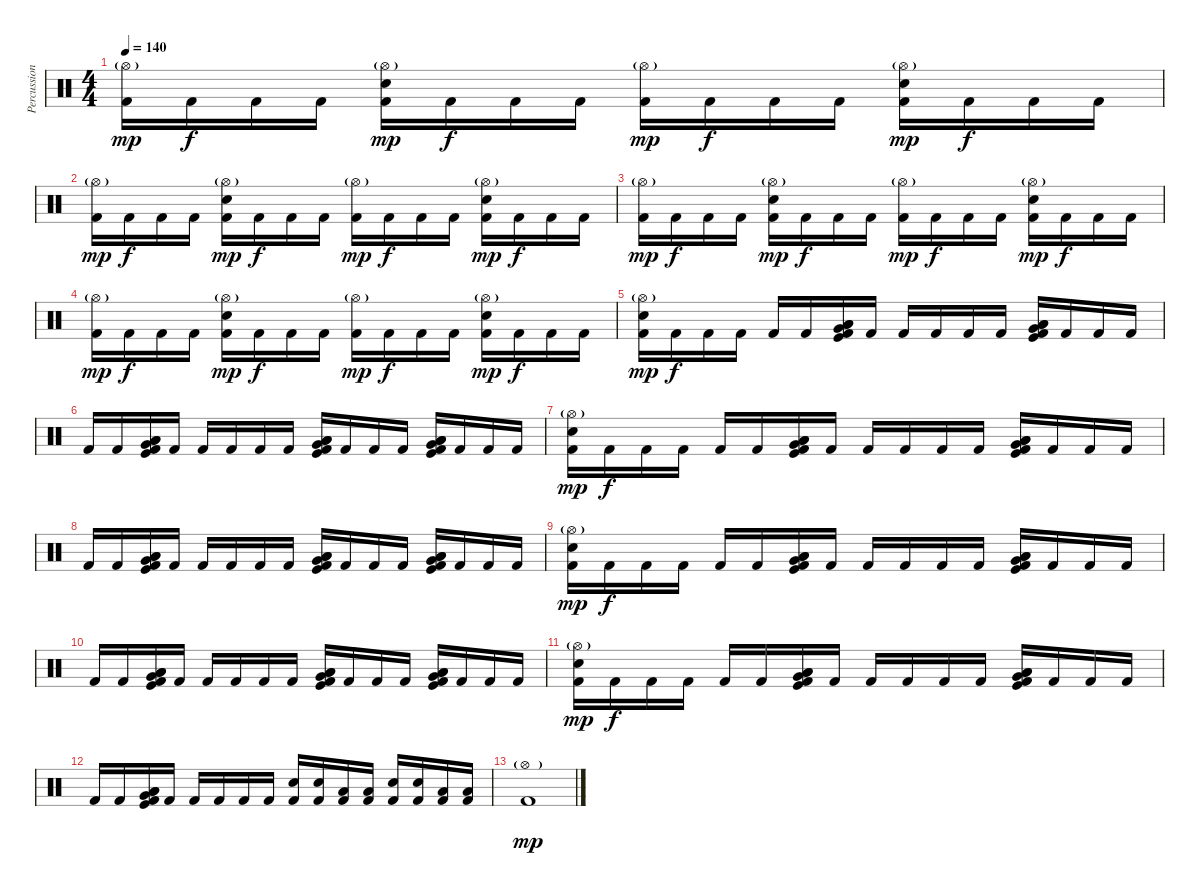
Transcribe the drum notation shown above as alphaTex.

\track ("Percussions" "Percussion") {instrument percussion}
\staff {score}
\articulation defaults
\ts (4 4)
\tempo 140
\clef neutral
\ks c
("Hi-Hat (open)"{g} "Kick (hit) 2").16{dy mp} "Kick (hit) 2".16{dy f} "Kick (hit) 2".16 "Kick (hit) 2".16 ("Hi-Hat (open)"{g} "Electric Snare (hit)" "Kick (hit) 2").16{dy mp} "Kick (hit) 2".16{dy f} "Kick (hit) 2".16 "Kick (hit) 2".16 ("Hi-Hat (open)"{g} "Kick (hit) 2").16{dy mp} "Kick (hit) 2".16{dy f} "Kick (hit) 2".16 "Kick (hit) 2".16 ("Hi-Hat (open)"{g} "Electric Snare (hit)" "Kick (hit) 2").16{dy mp} "Kick (hit) 2".16{dy f} "Kick (hit) 2".16 "Kick (hit) 2".16 |
("Hi-Hat (open)"{g} "Kick (hit) 2").16{dy mp} "Kick (hit) 2".16{dy f} "Kick (hit) 2".16 "Kick (hit) 2".16 ("Hi-Hat (open)"{g} "Electric Snare (hit)" "Kick (hit) 2").16{dy mp} "Kick (hit) 2".16{dy f} "Kick (hit) 2".16 "Kick (hit) 2".16 ("Hi-Hat (open)"{g} "Kick (hit) 2").16{dy mp} "Kick (hit) 2".16{dy f} "Kick (hit) 2".16 "Kick (hit) 2".16 ("Hi-Hat (open)"{g} "Electric Snare (hit)" "Kick (hit) 2").16{dy mp} "Kick (hit) 2".16{dy f} "Kick (hit) 2".16 "Kick (hit) 2".16 |
("Hi-Hat (open)"{g} "Kick (hit) 2").16{dy mp} "Kick (hit) 2".16{dy f} "Kick (hit) 2".16 "Kick (hit) 2".16 ("Hi-Hat (open)"{g} "Electric Snare (hit)" "Kick (hit) 2").16{dy mp} "Kick (hit) 2".16{dy f} "Kick (hit) 2".16 "Kick (hit) 2".16 ("Hi-Hat (open)"{g} "Kick (hit) 2").16{dy mp} "Kick (hit) 2".16{dy f} "Kick (hit) 2".16 "Kick (hit) 2".16 ("Hi-Hat (open)"{g} "Electric Snare (hit)" "Kick (hit) 2").16{dy mp} "Kick (hit) 2".16{dy f} "Kick (hit) 2".16 "Kick (hit) 2".16 |
("Hi-Hat (open)"{g} "Kick (hit) 2").16{dy mp} "Kick (hit) 2".16{dy f} "Kick (hit) 2".16 "Kick (hit) 2".16 ("Hi-Hat (open)"{g} "Electric Snare (hit)" "Kick (hit) 2").16{dy mp} "Kick (hit) 2".16{dy f} "Kick (hit) 2".16 "Kick (hit) 2".16 ("Hi-Hat (open)"{g} "Kick (hit) 2").16{dy mp} "Kick (hit) 2".16{dy f} "Kick (hit) 2".16 "Kick (hit) 2".16 ("Hi-Hat (open)"{g} "Electric Snare (hit)" "Kick (hit) 2").16{dy mp} "Kick (hit) 2".16{dy f} "Kick (hit) 2".16 "Kick (hit) 2".16 |
("Hi-Hat (open)"{g} "Electric Snare (hit)" "Kick (hit) 2").16{dy mp} "Kick (hit) 2".16{dy f} "Kick (hit) 2".16 "Kick (hit) 2".16 "Kick (hit) 2".16 "Kick (hit) 2".16 ("Kick (hit)" "Low Tom (hit)" "Very Low Tom (hit)" "Low Floor Tom (hit)" "Kick (hit) 2").16 "Kick (hit) 2".16 "Kick (hit) 2".16 "Kick (hit) 2".16 "Kick (hit) 2".16 "Kick (hit) 2".16 ("Kick (hit)" "Low Tom (hit)" "Very Low Tom (hit)" "Low Floor Tom (hit)" "Kick (hit) 2").16 "Kick (hit) 2".16 "Kick (hit) 2".16 "Kick (hit) 2".16 |
"Kick (hit) 2".16 "Kick (hit) 2".16 ("Kick (hit)" "Low Tom (hit)" "Very Low Tom (hit)" "Low Floor Tom (hit)" "Kick (hit) 2").16 "Kick (hit) 2".16 "Kick (hit) 2".16 "Kick (hit) 2".16 "Kick (hit) 2".16 "Kick (hit) 2".16 ("Kick (hit)" "Low Tom (hit)" "Very Low Tom (hit)" "Low Floor Tom (hit)" "Kick (hit) 2").16 "Kick (hit) 2".16 "Kick (hit) 2".16 "Kick (hit) 2".16 ("Kick (hit)" "Low Tom (hit)" "Very Low Tom (hit)" "Low Floor Tom (hit)" "Kick (hit) 2").16 "Kick (hit) 2".16 "Kick (hit) 2".16 "Kick (hit) 2".16 |
("Hi-Hat (open)"{g} "Electric Snare (hit)" "Kick (hit) 2").16{dy mp} "Kick (hit) 2".16{dy f} "Kick (hit) 2".16 "Kick (hit) 2".16 "Kick (hit) 2".16 "Kick (hit) 2".16 ("Kick (hit)" "Low Tom (hit)" "Very Low Tom (hit)" "Low Floor Tom (hit)" "Kick (hit) 2").16 "Kick (hit) 2".16 "Kick (hit) 2".16 "Kick (hit) 2".16 "Kick (hit) 2".16 "Kick (hit) 2".16 ("Kick (hit)" "Low Tom (hit)" "Very Low Tom (hit)" "Low Floor Tom (hit)" "Kick (hit) 2").16 "Kick (hit) 2".16 "Kick (hit) 2".16 "Kick (hit) 2".16 |
"Kick (hit) 2".16 "Kick (hit) 2".16 ("Kick (hit)" "Low Tom (hit)" "Very Low Tom (hit)" "Low Floor Tom (hit)" "Kick (hit) 2").16 "Kick (hit) 2".16 "Kick (hit) 2".16 "Kick (hit) 2".16 "Kick (hit) 2".16 "Kick (hit) 2".16 ("Kick (hit)" "Low Tom (hit)" "Very Low Tom (hit)" "Low Floor Tom (hit)" "Kick (hit) 2").16 "Kick (hit) 2".16 "Kick (hit) 2".16 "Kick (hit) 2".16 ("Kick (hit)" "Low Tom (hit)" "Very Low Tom (hit)" "Low Floor Tom (hit)" "Kick (hit) 2").16 "Kick (hit) 2".16 "Kick (hit) 2".16 "Kick (hit) 2".16 |
("Hi-Hat (open)"{g} "Electric Snare (hit)" "Kick (hit) 2").16{dy mp} "Kick (hit) 2".16{dy f} "Kick (hit) 2".16 "Kick (hit) 2".16 "Kick (hit) 2".16 "Kick (hit) 2".16 ("Kick (hit)" "Low Tom (hit)" "Very Low Tom (hit)" "Low Floor Tom (hit)" "Kick (hit) 2").16 "Kick (hit) 2".16 "Kick (hit) 2".16 "Kick (hit) 2".16 "Kick (hit) 2".16 "Kick (hit) 2".16 ("Kick (hit)" "Low Tom (hit)" "Very Low Tom (hit)" "Low Floor Tom (hit)" "Kick (hit) 2").16 "Kick (hit) 2".16 "Kick (hit) 2".16 "Kick (hit) 2".16 |
"Kick (hit) 2".16 "Kick (hit) 2".16 ("Kick (hit)" "Low Tom (hit)" "Very Low Tom (hit)" "Low Floor Tom (hit)" "Kick (hit) 2").16 "Kick (hit) 2".16 "Kick (hit) 2".16 "Kick (hit) 2".16 "Kick (hit) 2".16 "Kick (hit) 2".16 ("Kick (hit)" "Low Tom (hit)" "Very Low Tom (hit)" "Low Floor Tom (hit)" "Kick (hit) 2").16 "Kick (hit) 2".16 "Kick (hit) 2".16 "Kick (hit) 2".16 ("Kick (hit)" "Low Tom (hit)" "Very Low Tom (hit)" "Low Floor Tom (hit)" "Kick (hit) 2").16 "Kick (hit) 2".16 "Kick (hit) 2".16 "Kick (hit) 2".16 |
("Hi-Hat (open)"{g} "Electric Snare (hit)" "Kick (hit) 2").16{dy mp} "Kick (hit) 2".16{dy f} "Kick (hit) 2".16 "Kick (hit) 2".16 "Kick (hit) 2".16 "Kick (hit) 2".16 ("Kick (hit)" "Low Tom (hit)" "Very Low Tom (hit)" "Low Floor Tom (hit)" "Kick (hit) 2").16 "Kick (hit) 2".16 "Kick (hit) 2".16 "Kick (hit) 2".16 "Kick (hit) 2".16 "Kick (hit) 2".16 ("Kick (hit)" "Low Tom (hit)" "Very Low Tom (hit)" "Low Floor Tom (hit)" "Kick (hit) 2").16 "Kick (hit) 2".16 "Kick (hit) 2".16 "Kick (hit) 2".16 |
"Kick (hit) 2".16 "Kick (hit) 2".16 ("Kick (hit)" "Low Tom (hit)" "Very Low Tom (hit)" "Low Floor Tom (hit)" "Kick (hit) 2").16 "Kick (hit) 2".16 "Kick (hit) 2".16 "Kick (hit) 2".16 "Kick (hit) 2".16 "Kick (hit) 2".16 ("Electric Snare (hit)" "Kick (hit) 2").16 ("Electric Snare (hit)" "Kick (hit) 2").16 ("Low Floor Tom (hit)" "Kick (hit) 2").16 ("Low Floor Tom (hit)" "Kick (hit) 2").16 ("Electric Snare (hit)" "Kick (hit) 2").16 ("Electric Snare (hit)" "Kick (hit) 2").16 ("Low Floor Tom (hit)" "Kick (hit) 2").16 ("Low Floor Tom (hit)" "Kick (hit) 2").16 |
("Hi-Hat (open)"{g} "Kick (hit) 2").1{dy mp}
